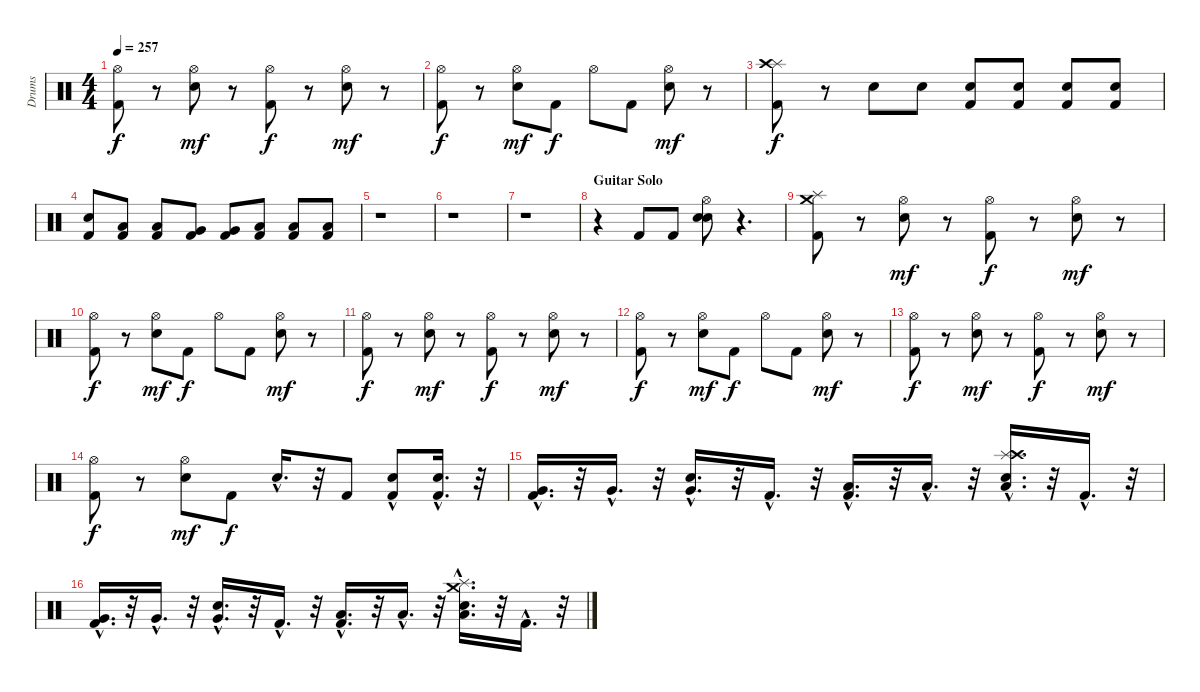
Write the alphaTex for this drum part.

\track ("Drums" "Drums") {instrument percussion}
\staff {score}
\articulation defaults
\ts (4 4)
\tempo 257
\clef neutral
\ks c
("Kick (hit) 2" "Hi-Hat (open)").8{dy f} r.8 ("Snare (hit) 2" "Hi-Hat (open)").8{dy mf} r.8 ("Kick (hit) 2" "Hi-Hat (open)").8{dy f} r.8 ("Snare (hit) 2" "Hi-Hat (open)").8{dy mf} r.8 |
("Kick (hit) 2" "Hi-Hat (open)").8{dy f} r.8 ("Snare (hit) 2" "Hi-Hat (open)").8{dy mf} "Kick (hit) 2".8{dy f} "Hi-Hat (open)".8 "Kick (hit) 2".8 ("Snare (hit) 2" "Hi-Hat (open)").8{dy mf} r.8 |
("Splash (hit)" "Crash high (hit)" "Kick (hit) 2").8{dy f} r.8 "Snare (hit) 2".8 "Snare (hit) 2".8 ("Kick (hit) 2" "Snare (hit) 2").8 ("Snare (hit) 2" "Kick (hit) 2").8 ("Snare (hit) 2" "Kick (hit) 2").8 ("Snare (hit) 2" "Kick (hit) 2").8 |
("Snare (hit) 2" "Kick (hit) 2").8 ("Low Tom (hit)" "Kick (hit) 2").8 ("Low Tom (hit)" "Kick (hit) 2").8 ("Very Low Tom (hit)" "Kick (hit) 2").8 ("Very Low Tom (hit)" "Kick (hit) 2").8 ("Low Floor Tom (hit)" "Kick (hit) 2").8 ("Low Floor Tom (hit)" "Kick (hit) 2").8 ("Low Floor Tom (hit)" "Kick (hit) 2").8 |
r.1 |
r.1 |
r.1 |
\section ("" "Guitar Solo")
r.4 "Kick (hit) 2".8 "Kick (hit) 2".8 ("Snare (hit) 2" "Hi-Hat (open)" "Electric Snare (hit)").8 r.4{d} |
("Splash (hit)" "Crash medium (hit)" "Kick (hit) 2").8 r.8 ("Snare (hit) 2" "Hi-Hat (open)").8{dy mf} r.8 ("Kick (hit) 2" "Hi-Hat (open)").8{dy f} r.8 ("Snare (hit) 2" "Hi-Hat (open)").8{dy mf} r.8 |
("Kick (hit) 2" "Hi-Hat (open)").8{dy f} r.8 ("Snare (hit) 2" "Hi-Hat (open)").8{dy mf} "Kick (hit) 2".8{dy f} "Hi-Hat (open)".8 "Kick (hit) 2".8 ("Snare (hit) 2" "Hi-Hat (open)").8{dy mf} r.8 |
("Hi-Hat (open)" "Kick (hit) 2").8{dy f} r.8 ("Snare (hit) 2" "Hi-Hat (open)").8{dy mf} r.8 ("Kick (hit) 2" "Hi-Hat (open)").8{dy f} r.8 ("Snare (hit) 2" "Hi-Hat (open)").8{dy mf} r.8 |
("Kick (hit) 2" "Hi-Hat (open)").8{dy f} r.8 ("Snare (hit) 2" "Hi-Hat (open)").8{dy mf} "Kick (hit) 2".8{dy f} "Hi-Hat (open)".8 "Kick (hit) 2".8 ("Snare (hit) 2" "Hi-Hat (open)").8{dy mf} r.8 |
("Hi-Hat (open)" "Kick (hit) 2").8{dy f} r.8 ("Snare (hit) 2" "Hi-Hat (open)").8{dy mf} r.8 ("Kick (hit) 2" "Hi-Hat (open)").8{dy f} r.8 ("Snare (hit) 2" "Hi-Hat (open)").8{dy mf} r.8 |
("Kick (hit) 2" "Hi-Hat (open)").8{dy f} r.8 ("Snare (hit) 2" "Hi-Hat (open)").8{dy mf} "Kick (hit) 2".8{dy f} "Snare (hit) 2"{hac}.16{d} r.32 "Kick (hit) 2".8 ("Snare (hit) 2" "Kick (hit) 2"{hac}).8 ("Snare (hit) 2"{hac} "Kick (hit) 2"{hac}).16{d} r.32 |
("Kick (hit) 2"{hac} "Very Low Tom (hit)"{hac}).16{d} r.32 "Very Low Tom (hit)"{hac}.16{d} r.32 ("Snare (hit) 2"{hac} "Very Low Tom (hit)"{hac}).16{d} r.32 "Kick (hit) 2"{hac}.16{d} r.32 ("Kick (hit) 2"{hac} "Low Floor Tom (hit)"{hac}).16{d} r.32 "Low Floor Tom (hit)"{hac}.16{d} r.32 ("Snare (hit) 2"{hac} "Low Floor Tom (hit)"{hac} "Splash (hit)"{hac} "Crash high (hit)"{hac}).16{d} r.32 "Kick (hit) 2"{hac}.16{d} r.32 |
("Kick (hit) 2"{hac} "Very Low Tom (hit)"{hac}).16{d} r.32 "Very Low Tom (hit)"{hac}.16{d} r.32 ("Snare (hit) 2"{hac} "Very Low Tom (hit)"{hac}).16{d} r.32 "Kick (hit) 2"{hac}.16{d} r.32 ("Low Floor Tom (hit)"{hac} "Kick (hit) 2"{hac}).16{d} r.32 "Low Floor Tom (hit)"{hac}.16{d} r.32 ("Snare (hit) 2"{hac} "Low Floor Tom (hit)"{hac} "Splash (hit)"{hac} "Crash medium (hit)"{hac}).16{d} r.32 "Kick (hit) 2"{hac}.16{d} r.32
